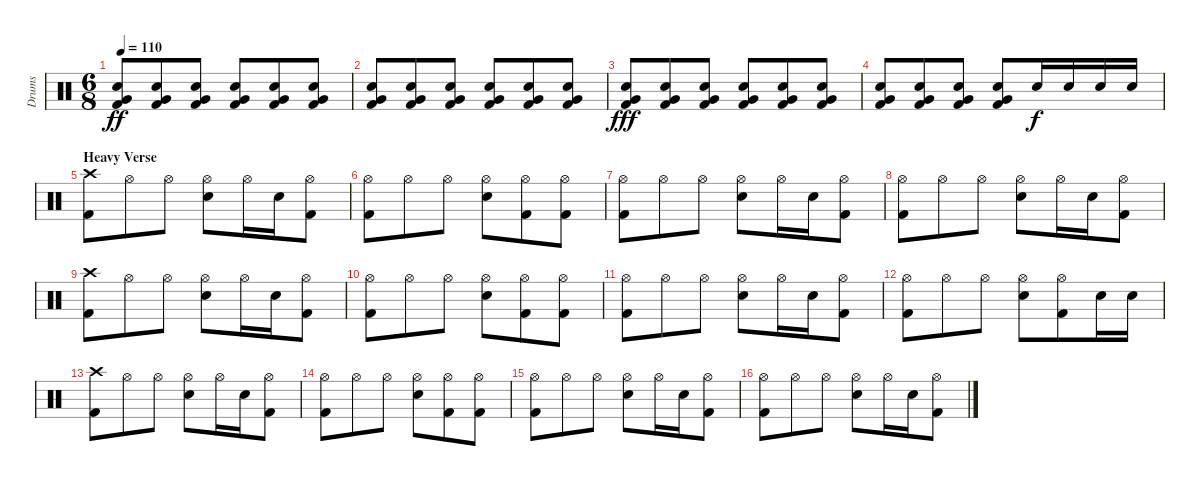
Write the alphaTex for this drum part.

\track ("Drums" "Drums") {instrument percussion}
\staff {score}
\articulation defaults
\ts (6 8)
\tempo 110
\clef neutral
\ks c
("Electric Snare (hit)" "Very Low Tom (hit)" "Kick (hit) 2").8{dy ff} ("Electric Snare (hit)" "Very Low Tom (hit)" "Kick (hit) 2").8 ("Electric Snare (hit)" "Very Low Tom (hit)" "Kick (hit) 2").8 ("Electric Snare (hit)" "Very Low Tom (hit)" "Kick (hit) 2").8 ("Electric Snare (hit)" "Very Low Tom (hit)" "Kick (hit) 2").8 ("Electric Snare (hit)" "Very Low Tom (hit)" "Kick (hit) 2").8 |
("Electric Snare (hit)" "Very Low Tom (hit)" "Kick (hit) 2").8 ("Electric Snare (hit)" "Very Low Tom (hit)" "Kick (hit) 2").8 ("Electric Snare (hit)" "Very Low Tom (hit)" "Kick (hit) 2").8 ("Electric Snare (hit)" "Very Low Tom (hit)" "Kick (hit) 2").8 ("Electric Snare (hit)" "Very Low Tom (hit)" "Kick (hit) 2").8 ("Electric Snare (hit)" "Very Low Tom (hit)" "Kick (hit) 2").8 |
("Electric Snare (hit)" "Very Low Tom (hit)" "Kick (hit) 2").8{dy fff} ("Electric Snare (hit)" "Very Low Tom (hit)" "Kick (hit) 2").8 ("Electric Snare (hit)" "Very Low Tom (hit)" "Kick (hit) 2").8 ("Electric Snare (hit)" "Very Low Tom (hit)" "Kick (hit) 2").8 ("Electric Snare (hit)" "Very Low Tom (hit)" "Kick (hit) 2").8 ("Electric Snare (hit)" "Very Low Tom (hit)" "Kick (hit) 2").8 |
("Electric Snare (hit)" "Very Low Tom (hit)" "Kick (hit) 2").8 ("Electric Snare (hit)" "Very Low Tom (hit)" "Kick (hit) 2").8 ("Electric Snare (hit)" "Very Low Tom (hit)" "Kick (hit) 2").8 ("Electric Snare (hit)" "Very Low Tom (hit)" "Kick (hit) 2").8 "Electric Snare (hit)".16{dy f} "Electric Snare (hit)".16 "Electric Snare (hit)".16 "Electric Snare (hit)".16 |
\section ("" "Heavy Verse")
("Crash high (hit)" "Kick (hit) 2").8 "Hi-Hat (open)".8 "Hi-Hat (open)".8 ("Hi-Hat (open)" "Electric Snare (hit)").8 "Hi-Hat (open)".16 "Electric Snare (hit)".16 ("Hi-Hat (open)" "Kick (hit) 2").8 |
("Hi-Hat (open)" "Kick (hit) 2").8 "Hi-Hat (open)".8 "Hi-Hat (open)".8 ("Hi-Hat (open)" "Electric Snare (hit)").8 ("Hi-Hat (open)" "Kick (hit) 2").8 ("Hi-Hat (open)" "Kick (hit) 2").8 |
("Hi-Hat (open)" "Kick (hit) 2").8 "Hi-Hat (open)".8 "Hi-Hat (open)".8 ("Hi-Hat (open)" "Electric Snare (hit)").8 "Hi-Hat (open)".16 "Electric Snare (hit)".16 ("Hi-Hat (open)" "Kick (hit) 2").8 |
("Hi-Hat (open)" "Kick (hit) 2").8 "Hi-Hat (open)".8 "Hi-Hat (open)".8 ("Hi-Hat (open)" "Electric Snare (hit)").8 "Hi-Hat (open)".16 "Electric Snare (hit)".16 ("Hi-Hat (open)" "Kick (hit) 2").8 |
("Crash high (hit)" "Kick (hit) 2").8 "Hi-Hat (open)".8 "Hi-Hat (open)".8 ("Hi-Hat (open)" "Electric Snare (hit)").8 "Hi-Hat (open)".16 "Electric Snare (hit)".16 ("Hi-Hat (open)" "Kick (hit) 2").8 |
("Hi-Hat (open)" "Kick (hit) 2").8 "Hi-Hat (open)".8 "Hi-Hat (open)".8 ("Hi-Hat (open)" "Electric Snare (hit)").8 ("Hi-Hat (open)" "Kick (hit) 2").8 ("Hi-Hat (open)" "Kick (hit) 2").8 |
("Hi-Hat (open)" "Kick (hit) 2").8 "Hi-Hat (open)".8 "Hi-Hat (open)".8 ("Hi-Hat (open)" "Electric Snare (hit)").8 "Hi-Hat (open)".16 "Electric Snare (hit)".16 ("Hi-Hat (open)" "Kick (hit) 2").8 |
("Hi-Hat (open)" "Kick (hit) 2").8 "Hi-Hat (open)".8 "Hi-Hat (open)".8 ("Hi-Hat (open)" "Electric Snare (hit)").8 ("Hi-Hat (open)" "Kick (hit) 2").8 "Electric Snare (hit)".16 "Electric Snare (hit)".16 |
("Crash high (hit)" "Kick (hit) 2").8 "Hi-Hat (open)".8 "Hi-Hat (open)".8 ("Hi-Hat (open)" "Electric Snare (hit)").8 "Hi-Hat (open)".16 "Electric Snare (hit)".16 ("Hi-Hat (open)" "Kick (hit) 2").8 |
("Hi-Hat (open)" "Kick (hit) 2").8 "Hi-Hat (open)".8 "Hi-Hat (open)".8 ("Hi-Hat (open)" "Electric Snare (hit)").8 ("Hi-Hat (open)" "Kick (hit) 2").8 ("Hi-Hat (open)" "Kick (hit) 2").8 |
("Hi-Hat (open)" "Kick (hit) 2").8 "Hi-Hat (open)".8 "Hi-Hat (open)".8 ("Hi-Hat (open)" "Electric Snare (hit)").8 "Hi-Hat (open)".16 "Electric Snare (hit)".16 ("Hi-Hat (open)" "Kick (hit) 2").8 |
("Hi-Hat (open)" "Kick (hit) 2").8 "Hi-Hat (open)".8 "Hi-Hat (open)".8 ("Hi-Hat (open)" "Electric Snare (hit)").8 "Hi-Hat (open)".16 "Electric Snare (hit)".16 ("Hi-Hat (open)" "Kick (hit) 2").8
